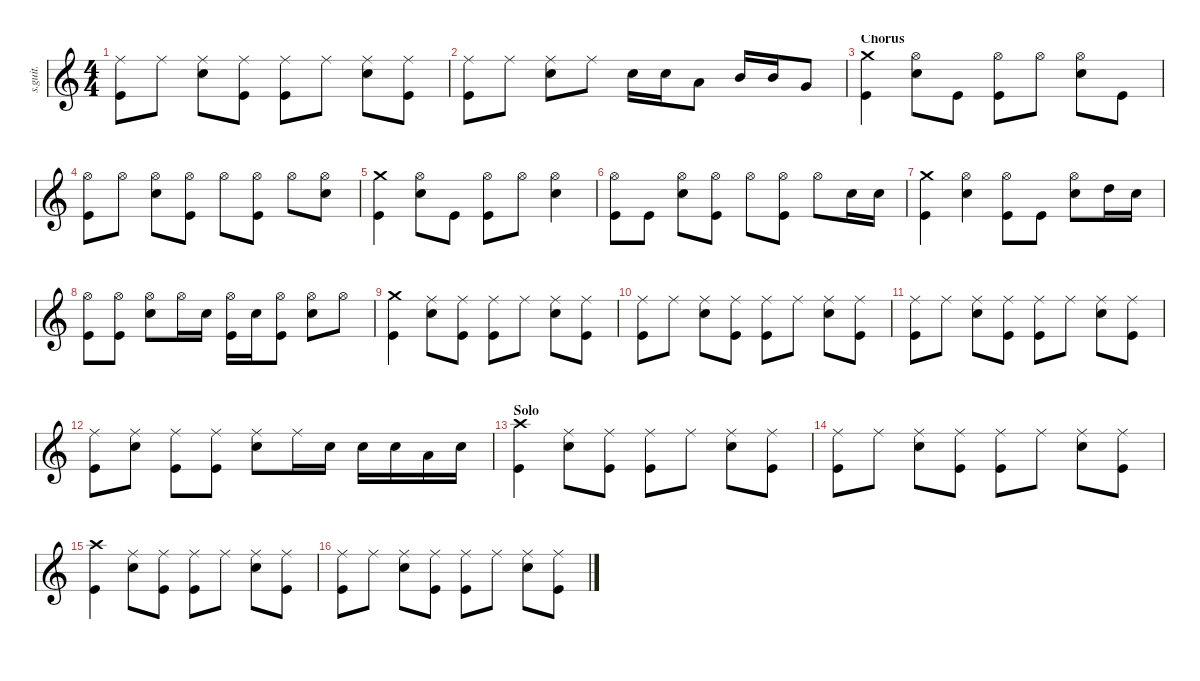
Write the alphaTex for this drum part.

\defaultSystemsLayout 4
\hideDynamics
\bracketExtendMode nobrackets
\track ("Chad Channing - Drums" "s.guit.") {instrument percussion}
\staff {score}
\articulation defaults
\ts (4 4)
\tempo (126 hide)
\clef g2
\ks c
("Ride (middle)" "Kick (hit)").8{lyrics (0 "") lyrics (1 "") lyrics (2 "") lyrics (3 "") lyrics (4 "") dy f} "Ride (middle)".8{lyrics (0 "") lyrics (1 "") lyrics (2 "") lyrics (3 "") lyrics (4 "")} ("Ride (middle)" "Snare (hit) 2").8{lyrics (0 "") lyrics (1 "") lyrics (2 "") lyrics (3 "") lyrics (4 "")} ("Ride (middle)" "Kick (hit)").8{lyrics (0 "") lyrics (1 "") lyrics (2 "") lyrics (3 "") lyrics (4 "")} ("Ride (middle)" "Kick (hit)").8{lyrics (0 "") lyrics (1 "") lyrics (2 "") lyrics (3 "") lyrics (4 "")} "Ride (middle)".8{lyrics (0 "") lyrics (1 "") lyrics (2 "") lyrics (3 "") lyrics (4 "")} ("Ride (middle)" "Snare (hit) 2").8{lyrics (0 "") lyrics (1 "") lyrics (2 "") lyrics (3 "") lyrics (4 "")} ("Ride (middle)" "Kick (hit)").8{lyrics (0 "") lyrics (1 "") lyrics (2 "") lyrics (3 "") lyrics (4 "")} |
("Ride (middle)" "Kick (hit)").8{lyrics (0 "") lyrics (1 "") lyrics (2 "") lyrics (3 "") lyrics (4 "")} "Ride (middle)".8{lyrics (0 "") lyrics (1 "") lyrics (2 "") lyrics (3 "") lyrics (4 "")} ("Ride (middle)" "Snare (hit) 2").8{lyrics (0 "") lyrics (1 "") lyrics (2 "") lyrics (3 "") lyrics (4 "")} "Ride (middle)".8{lyrics (0 "") lyrics (1 "") lyrics (2 "") lyrics (3 "") lyrics (4 "")} "Snare (hit) 2".16{lyrics (0 "") lyrics (1 "") lyrics (2 "") lyrics (3 "") lyrics (4 "")} "Snare (hit) 2".16{lyrics (0 "") lyrics (1 "") lyrics (2 "") lyrics (3 "") lyrics (4 "")} "Low Tom (hit)".8{lyrics (0 "") lyrics (1 "") lyrics (2 "") lyrics (3 "") lyrics (4 "")} "Mid Tom (hit)".16{lyrics (0 "") lyrics (1 "") lyrics (2 "") lyrics (3 "") lyrics (4 "")} "Mid Tom (hit)".16{lyrics (0 "") lyrics (1 "") lyrics (2 "") lyrics (3 "") lyrics (4 "")} "Very Low Tom (hit)".8{lyrics (0 "") lyrics (1 "") lyrics (2 "") lyrics (3 "") lyrics (4 "")} |
\section ("" "Chorus")
("Crash medium (hit)" "Kick (hit)").4{lyrics (0 "") lyrics (1 "") lyrics (2 "") lyrics (3 "") lyrics (4 "")} ("Hi-Hat (open)" "Snare (hit) 2").8{lyrics (0 "") lyrics (1 "") lyrics (2 "") lyrics (3 "") lyrics (4 "")} "Kick (hit)".8{lyrics (0 "") lyrics (1 "") lyrics (2 "") lyrics (3 "") lyrics (4 "")} ("Hi-Hat (open)" "Kick (hit)").8{lyrics (0 "") lyrics (1 "") lyrics (2 "") lyrics (3 "") lyrics (4 "")} "Hi-Hat (open)".8{lyrics (0 "") lyrics (1 "") lyrics (2 "") lyrics (3 "") lyrics (4 "")} ("Hi-Hat (open)" "Snare (hit) 2").8{lyrics (0 "") lyrics (1 "") lyrics (2 "") lyrics (3 "") lyrics (4 "")} "Kick (hit)".8{lyrics (0 "") lyrics (1 "") lyrics (2 "") lyrics (3 "") lyrics (4 "")} |
("Hi-Hat (open)" "Kick (hit)").8{lyrics (0 "") lyrics (1 "") lyrics (2 "") lyrics (3 "") lyrics (4 "")} "Hi-Hat (open)".8{lyrics (0 "") lyrics (1 "") lyrics (2 "") lyrics (3 "") lyrics (4 "")} ("Hi-Hat (open)" "Snare (hit) 2").8{lyrics (0 "") lyrics (1 "") lyrics (2 "") lyrics (3 "") lyrics (4 "")} ("Hi-Hat (open)" "Kick (hit)").8{lyrics (0 "") lyrics (1 "") lyrics (2 "") lyrics (3 "") lyrics (4 "")} "Hi-Hat (open)".8{lyrics (0 "") lyrics (1 "") lyrics (2 "") lyrics (3 "") lyrics (4 "")} ("Hi-Hat (open)" "Kick (hit)").8{lyrics (0 "") lyrics (1 "") lyrics (2 "") lyrics (3 "") lyrics (4 "")} "Hi-Hat (open)".8{lyrics (0 "") lyrics (1 "") lyrics (2 "") lyrics (3 "") lyrics (4 "")} ("Hi-Hat (open)" "Snare (hit) 2").8{lyrics (0 "") lyrics (1 "") lyrics (2 "") lyrics (3 "") lyrics (4 "")} |
("Crash medium (hit)" "Kick (hit)").4{lyrics (0 "") lyrics (1 "") lyrics (2 "") lyrics (3 "") lyrics (4 "")} ("Hi-Hat (open)" "Snare (hit) 2").8{lyrics (0 "") lyrics (1 "") lyrics (2 "") lyrics (3 "") lyrics (4 "")} "Kick (hit)".8{lyrics (0 "") lyrics (1 "") lyrics (2 "") lyrics (3 "") lyrics (4 "")} ("Hi-Hat (open)" "Kick (hit)").8{lyrics (0 "") lyrics (1 "") lyrics (2 "") lyrics (3 "") lyrics (4 "")} "Hi-Hat (open)".8{lyrics (0 "") lyrics (1 "") lyrics (2 "") lyrics (3 "") lyrics (4 "")} ("Hi-Hat (open)" "Snare (hit) 2").4{lyrics (0 "") lyrics (1 "") lyrics (2 "") lyrics (3 "") lyrics (4 "")} |
("Hi-Hat (open)" "Kick (hit)").8{lyrics (0 "") lyrics (1 "") lyrics (2 "") lyrics (3 "") lyrics (4 "")} "Kick (hit)".8{lyrics (0 "") lyrics (1 "") lyrics (2 "") lyrics (3 "") lyrics (4 "")} ("Hi-Hat (open)" "Snare (hit) 2").8{lyrics (0 "") lyrics (1 "") lyrics (2 "") lyrics (3 "") lyrics (4 "")} ("Hi-Hat (open)" "Kick (hit)").8{lyrics (0 "") lyrics (1 "") lyrics (2 "") lyrics (3 "") lyrics (4 "")} "Hi-Hat (open)".8{lyrics (0 "") lyrics (1 "") lyrics (2 "") lyrics (3 "") lyrics (4 "")} ("Hi-Hat (open)" "Kick (hit)").8{lyrics (0 "") lyrics (1 "") lyrics (2 "") lyrics (3 "") lyrics (4 "")} "Hi-Hat (open)".8{lyrics (0 "") lyrics (1 "") lyrics (2 "") lyrics (3 "") lyrics (4 "")} "Snare (hit) 2".16{lyrics (0 "") lyrics (1 "") lyrics (2 "") lyrics (3 "") lyrics (4 "")} "Snare (hit) 2".16{lyrics (0 "") lyrics (1 "") lyrics (2 "") lyrics (3 "") lyrics (4 "")} |
("Crash medium (hit)" "Kick (hit)").4{lyrics (0 "") lyrics (1 "") lyrics (2 "") lyrics (3 "") lyrics (4 "")} ("Hi-Hat (open)" "Snare (hit) 2").4{lyrics (0 "") lyrics (1 "") lyrics (2 "") lyrics (3 "") lyrics (4 "")} ("Hi-Hat (open)" "Kick (hit)").8{lyrics (0 "") lyrics (1 "") lyrics (2 "") lyrics (3 "") lyrics (4 "")} "Kick (hit)".8{lyrics (0 "") lyrics (1 "") lyrics (2 "") lyrics (3 "") lyrics (4 "")} ("Hi-Hat (open)" "Snare (hit) 2").8{lyrics (0 "") lyrics (1 "") lyrics (2 "") lyrics (3 "") lyrics (4 "")} "High Tom (hit)".16{lyrics (0 "") lyrics (1 "") lyrics (2 "") lyrics (3 "") lyrics (4 "")} "Snare (hit) 2".16{lyrics (0 "") lyrics (1 "") lyrics (2 "") lyrics (3 "") lyrics (4 "")} |
("Hi-Hat (open)" "Kick (hit)").8{lyrics (0 "") lyrics (1 "") lyrics (2 "") lyrics (3 "") lyrics (4 "")} ("Hi-Hat (open)" "Kick (hit)").8{lyrics (0 "") lyrics (1 "") lyrics (2 "") lyrics (3 "") lyrics (4 "")} ("Hi-Hat (open)" "Snare (hit) 2").8{lyrics (0 "") lyrics (1 "") lyrics (2 "") lyrics (3 "") lyrics (4 "")} "Hi-Hat (open)".16{lyrics (0 "") lyrics (1 "") lyrics (2 "") lyrics (3 "") lyrics (4 "")} "Snare (hit) 2".16{lyrics (0 "") lyrics (1 "") lyrics (2 "") lyrics (3 "") lyrics (4 "")} ("Hi-Hat (open)" "Kick (hit)").16{lyrics (0 "") lyrics (1 "") lyrics (2 "") lyrics (3 "") lyrics (4 "")} "Snare (hit) 2".16{lyrics (0 "") lyrics (1 "") lyrics (2 "") lyrics (3 "") lyrics (4 "")} ("Hi-Hat (open)" "Kick (hit)").8{lyrics (0 "") lyrics (1 "") lyrics (2 "") lyrics (3 "") lyrics (4 "")} ("Hi-Hat (open)" "Snare (hit) 2").8{lyrics (0 "") lyrics (1 "") lyrics (2 "") lyrics (3 "") lyrics (4 "")} "Hi-Hat (open)".8{lyrics (0 "") lyrics (1 "") lyrics (2 "") lyrics (3 "") lyrics (4 "")} |
("Crash medium (hit)" "Kick (hit)").4{lyrics (0 "") lyrics (1 "") lyrics (2 "") lyrics (3 "") lyrics (4 "")} ("Ride (middle)" "Snare (hit) 2").8{lyrics (0 "") lyrics (1 "") lyrics (2 "") lyrics (3 "") lyrics (4 "")} ("Ride (middle)" "Kick (hit)").8{lyrics (0 "") lyrics (1 "") lyrics (2 "") lyrics (3 "") lyrics (4 "")} ("Ride (middle)" "Kick (hit)").8{lyrics (0 "") lyrics (1 "") lyrics (2 "") lyrics (3 "") lyrics (4 "")} "Ride (middle)".8{lyrics (0 "") lyrics (1 "") lyrics (2 "") lyrics (3 "") lyrics (4 "")} ("Ride (middle)" "Snare (hit) 2").8{lyrics (0 "") lyrics (1 "") lyrics (2 "") lyrics (3 "") lyrics (4 "")} ("Ride (middle)" "Kick (hit)").8{lyrics (0 "") lyrics (1 "") lyrics (2 "") lyrics (3 "") lyrics (4 "")} |
("Ride (middle)" "Kick (hit)").8{lyrics (0 "") lyrics (1 "") lyrics (2 "") lyrics (3 "") lyrics (4 "")} "Ride (middle)".8{lyrics (0 "") lyrics (1 "") lyrics (2 "") lyrics (3 "") lyrics (4 "")} ("Ride (middle)" "Snare (hit) 2").8{lyrics (0 "") lyrics (1 "") lyrics (2 "") lyrics (3 "") lyrics (4 "")} ("Ride (middle)" "Kick (hit)").8{lyrics (0 "") lyrics (1 "") lyrics (2 "") lyrics (3 "") lyrics (4 "")} ("Ride (middle)" "Kick (hit)").8{lyrics (0 "") lyrics (1 "") lyrics (2 "") lyrics (3 "") lyrics (4 "")} "Ride (middle)".8{lyrics (0 "") lyrics (1 "") lyrics (2 "") lyrics (3 "") lyrics (4 "")} ("Ride (middle)" "Snare (hit) 2").8{lyrics (0 "") lyrics (1 "") lyrics (2 "") lyrics (3 "") lyrics (4 "")} ("Ride (middle)" "Kick (hit)").8{lyrics (0 "") lyrics (1 "") lyrics (2 "") lyrics (3 "") lyrics (4 "")} |
("Ride (middle)" "Kick (hit)").8{lyrics (0 "") lyrics (1 "") lyrics (2 "") lyrics (3 "") lyrics (4 "")} "Ride (middle)".8{lyrics (0 "") lyrics (1 "") lyrics (2 "") lyrics (3 "") lyrics (4 "")} ("Ride (middle)" "Snare (hit) 2").8{lyrics (0 "") lyrics (1 "") lyrics (2 "") lyrics (3 "") lyrics (4 "")} ("Ride (middle)" "Kick (hit)").8{lyrics (0 "") lyrics (1 "") lyrics (2 "") lyrics (3 "") lyrics (4 "")} ("Ride (middle)" "Kick (hit)").8{lyrics (0 "") lyrics (1 "") lyrics (2 "") lyrics (3 "") lyrics (4 "")} "Ride (middle)".8{lyrics (0 "") lyrics (1 "") lyrics (2 "") lyrics (3 "") lyrics (4 "")} ("Ride (middle)" "Snare (hit) 2").8{lyrics (0 "") lyrics (1 "") lyrics (2 "") lyrics (3 "") lyrics (4 "")} ("Ride (middle)" "Kick (hit)").8{lyrics (0 "") lyrics (1 "") lyrics (2 "") lyrics (3 "") lyrics (4 "")} |
("Ride (middle)" "Kick (hit)").8{lyrics (0 "") lyrics (1 "") lyrics (2 "") lyrics (3 "") lyrics (4 "")} ("Ride (middle)" "Snare (hit) 2").8{lyrics (0 "") lyrics (1 "") lyrics (2 "") lyrics (3 "") lyrics (4 "")} ("Ride (middle)" "Kick (hit)").8{lyrics (0 "") lyrics (1 "") lyrics (2 "") lyrics (3 "") lyrics (4 "")} ("Ride (middle)" "Kick (hit)").8{lyrics (0 "") lyrics (1 "") lyrics (2 "") lyrics (3 "") lyrics (4 "")} ("Ride (middle)" "Snare (hit) 2").8{lyrics (0 "") lyrics (1 "") lyrics (2 "") lyrics (3 "") lyrics (4 "")} "Ride (middle)".16{lyrics (0 "") lyrics (1 "") lyrics (2 "") lyrics (3 "") lyrics (4 "")} "Snare (hit) 2".16{lyrics (0 "") lyrics (1 "") lyrics (2 "") lyrics (3 "") lyrics (4 "")} "Snare (hit) 2".16{lyrics (0 "") lyrics (1 "") lyrics (2 "") lyrics (3 "") lyrics (4 "")} "Snare (hit) 2".16{lyrics (0 "") lyrics (1 "") lyrics (2 "") lyrics (3 "") lyrics (4 "")} "Low Floor Tom (hit)".16{lyrics (0 "") lyrics (1 "") lyrics (2 "") lyrics (3 "") lyrics (4 "")} "Snare (hit) 2".16{lyrics (0 "") lyrics (1 "") lyrics (2 "") lyrics (3 "") lyrics (4 "")} |
\section ("" "Solo")
\tempo (133 hide)
("Kick (hit)" "Crash high (hit)").4{lyrics (0 "") lyrics (1 "") lyrics (2 "") lyrics (3 "") lyrics (4 "")} ("Ride (middle)" "Snare (hit) 2").8{lyrics (0 "") lyrics (1 "") lyrics (2 "") lyrics (3 "") lyrics (4 "")} ("Ride (middle)" "Kick (hit)").8{lyrics (0 "") lyrics (1 "") lyrics (2 "") lyrics (3 "") lyrics (4 "")} ("Ride (middle)" "Kick (hit)").8{lyrics (0 "") lyrics (1 "") lyrics (2 "") lyrics (3 "") lyrics (4 "")} "Ride (middle)".8{lyrics (0 "") lyrics (1 "") lyrics (2 "") lyrics (3 "") lyrics (4 "")} ("Ride (middle)" "Snare (hit) 2").8{lyrics (0 "") lyrics (1 "") lyrics (2 "") lyrics (3 "") lyrics (4 "")} ("Ride (middle)" "Kick (hit)").8{lyrics (0 "") lyrics (1 "") lyrics (2 "") lyrics (3 "") lyrics (4 "")} |
("Ride (middle)" "Kick (hit)").8{lyrics (0 "") lyrics (1 "") lyrics (2 "") lyrics (3 "") lyrics (4 "")} "Ride (middle)".8{lyrics (0 "") lyrics (1 "") lyrics (2 "") lyrics (3 "") lyrics (4 "")} ("Ride (middle)" "Snare (hit) 2").8{lyrics (0 "") lyrics (1 "") lyrics (2 "") lyrics (3 "") lyrics (4 "")} ("Ride (middle)" "Kick (hit)").8{lyrics (0 "") lyrics (1 "") lyrics (2 "") lyrics (3 "") lyrics (4 "")} ("Ride (middle)" "Kick (hit)").8{lyrics (0 "") lyrics (1 "") lyrics (2 "") lyrics (3 "") lyrics (4 "")} "Ride (middle)".8{lyrics (0 "") lyrics (1 "") lyrics (2 "") lyrics (3 "") lyrics (4 "")} ("Ride (middle)" "Snare (hit) 2").8{lyrics (0 "") lyrics (1 "") lyrics (2 "") lyrics (3 "") lyrics (4 "")} ("Ride (middle)" "Kick (hit)").8{lyrics (0 "") lyrics (1 "") lyrics (2 "") lyrics (3 "") lyrics (4 "")} |
("Kick (hit)" "Crash high (hit)").4{lyrics (0 "") lyrics (1 "") lyrics (2 "") lyrics (3 "") lyrics (4 "")} ("Ride (middle)" "Snare (hit) 2").8{lyrics (0 "") lyrics (1 "") lyrics (2 "") lyrics (3 "") lyrics (4 "")} ("Ride (middle)" "Kick (hit)").8{lyrics (0 "") lyrics (1 "") lyrics (2 "") lyrics (3 "") lyrics (4 "")} ("Ride (middle)" "Kick (hit)").8{lyrics (0 "") lyrics (1 "") lyrics (2 "") lyrics (3 "") lyrics (4 "")} "Ride (middle)".8{lyrics (0 "") lyrics (1 "") lyrics (2 "") lyrics (3 "") lyrics (4 "")} ("Ride (middle)" "Snare (hit) 2").8{lyrics (0 "") lyrics (1 "") lyrics (2 "") lyrics (3 "") lyrics (4 "")} ("Ride (middle)" "Kick (hit)").8{lyrics (0 "") lyrics (1 "") lyrics (2 "") lyrics (3 "") lyrics (4 "")} |
("Ride (middle)" "Kick (hit)").8{lyrics (0 "") lyrics (1 "") lyrics (2 "") lyrics (3 "") lyrics (4 "")} "Ride (middle)".8{lyrics (0 "") lyrics (1 "") lyrics (2 "") lyrics (3 "") lyrics (4 "")} ("Ride (middle)" "Snare (hit) 2").8{lyrics (0 "") lyrics (1 "") lyrics (2 "") lyrics (3 "") lyrics (4 "")} ("Ride (middle)" "Kick (hit)").8{lyrics (0 "") lyrics (1 "") lyrics (2 "") lyrics (3 "") lyrics (4 "")} ("Ride (middle)" "Kick (hit)").8{lyrics (0 "") lyrics (1 "") lyrics (2 "") lyrics (3 "") lyrics (4 "")} "Ride (middle)".8{lyrics (0 "") lyrics (1 "") lyrics (2 "") lyrics (3 "") lyrics (4 "")} ("Ride (middle)" "Snare (hit) 2").8{lyrics (0 "") lyrics (1 "") lyrics (2 "") lyrics (3 "") lyrics (4 "")} ("Ride (middle)" "Kick (hit)").8{lyrics (0 "") lyrics (1 "") lyrics (2 "") lyrics (3 "") lyrics (4 "")}
